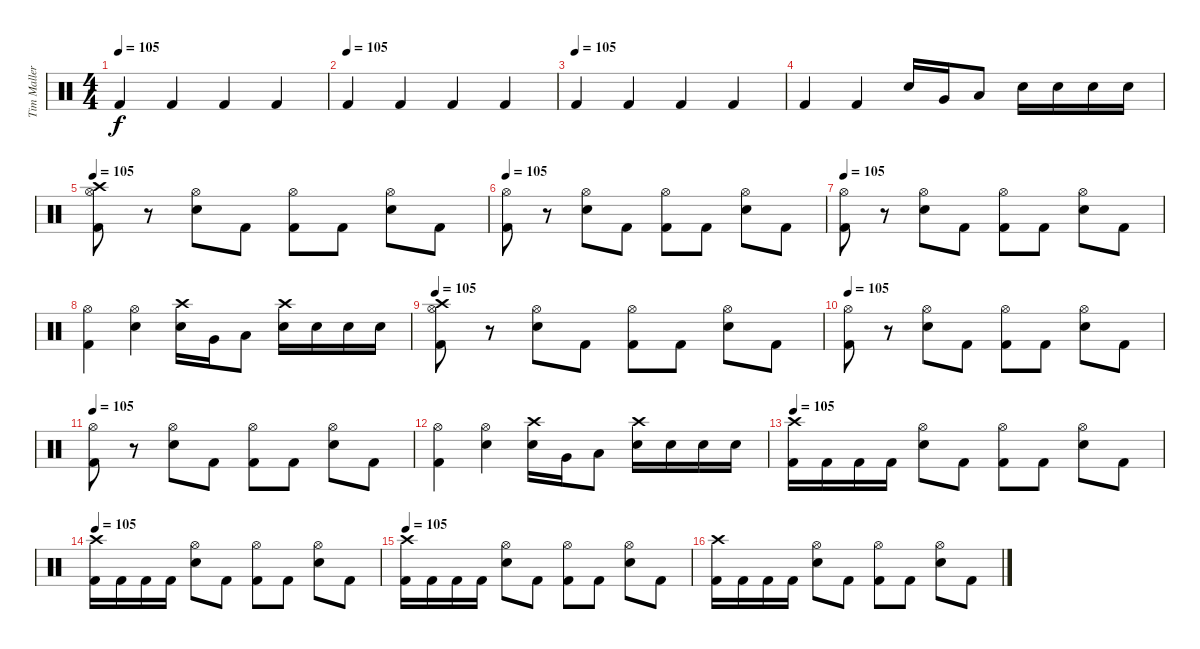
\track ("Tim Mallere" "Tim Maller") {instrument percussion}
\staff {score}
\articulation defaults
\ts (4 4)
\tempo 105
\clef neutral
\ks c "Kick (hit) 2".4{dy f} "Kick (hit) 2".4 "Kick (hit) 2".4 "Kick (hit) 2".4
|
\tempo (105)
"Kick (hit) 2".4 "Kick (hit) 2".4 "Kick (hit) 2".4 "Kick (hit) 2".4 |
\tempo (105)
"Kick (hit) 2".4 "Kick (hit) 2".4 "Kick (hit) 2".4 "Kick (hit) 2".4 |
"Kick (hit) 2".4 "Kick (hit) 2".4 "Electric Snare (hit)".16 "Very Low Tom (hit)".16 "Low Floor Tom (hit)".8 "Electric Snare (hit)".16 "Electric Snare (hit)".16 "Electric Snare (hit)".16 "Electric Snare (hit)".16 |
\tempo 105
("Crash high (hit)" "Hi-Hat (open)" "Kick (hit) 2").8 r.8 ("Hi-Hat (open)" "Electric Snare (hit)").8 "Kick (hit) 2".8 ("Hi-Hat (open)" "Kick (hit) 2").8 "Kick (hit) 2".8 ("Hi-Hat (open)" "Electric Snare (hit)").8 "Kick (hit) 2".8 |
\tempo 105
("Hi-Hat (open)" "Kick (hit) 2").8 r.8 ("Hi-Hat (open)" "Electric Snare (hit)").8 "Kick (hit) 2".8 ("Hi-Hat (open)" "Kick (hit) 2").8 "Kick (hit) 2".8 ("Hi-Hat (open)" "Electric Snare (hit)").8 "Kick (hit) 2".8 |
\tempo 105
("Hi-Hat (open)" "Kick (hit) 2").8 r.8 ("Hi-Hat (open)" "Electric Snare (hit)").8 "Kick (hit) 2".8 ("Hi-Hat (open)" "Kick (hit) 2").8 "Kick (hit) 2".8 ("Hi-Hat (open)" "Electric Snare (hit)").8 "Kick (hit) 2".8 |
("Hi-Hat (open)" "Kick (hit) 2").4 ("Hi-Hat (open)" "Electric Snare (hit)").4 ("Crash high (hit)" "Electric Snare (hit)").16 "Very Low Tom (hit)".16 "Low Floor Tom (hit)".8 ("Crash high (hit)" "Electric Snare (hit)").16 "Electric Snare (hit)".16 "Electric Snare (hit)".16 "Electric Snare (hit)".16 |
\tempo 105
("Crash high (hit)" "Hi-Hat (open)" "Kick (hit) 2").8 r.8 ("Hi-Hat (open)" "Electric Snare (hit)").8 "Kick (hit) 2".8 ("Hi-Hat (open)" "Kick (hit) 2").8 "Kick (hit) 2".8 ("Hi-Hat (open)" "Electric Snare (hit)").8 "Kick (hit) 2".8 |
\tempo 105
("Hi-Hat (open)" "Kick (hit) 2").8 r.8 ("Hi-Hat (open)" "Electric Snare (hit)").8 "Kick (hit) 2".8 ("Hi-Hat (open)" "Kick (hit) 2").8 "Kick (hit) 2".8 ("Hi-Hat (open)" "Electric Snare (hit)").8 "Kick (hit) 2".8 |
\tempo 105
("Hi-Hat (open)" "Kick (hit) 2").8 r.8 ("Hi-Hat (open)" "Electric Snare (hit)").8 "Kick (hit) 2".8 ("Hi-Hat (open)" "Kick (hit) 2").8 "Kick (hit) 2".8 ("Hi-Hat (open)" "Electric Snare (hit)").8 "Kick (hit) 2".8 |
("Hi-Hat (open)" "Kick (hit) 2").4 ("Hi-Hat (open)" "Electric Snare (hit)").4 ("Crash high (hit)" "Electric Snare (hit)").16 "Very Low Tom (hit)".16 "Low Floor Tom (hit)".8 ("Crash high (hit)" "Electric Snare (hit)").16 "Electric Snare (hit)".16 "Electric Snare (hit)".16 "Electric Snare (hit)".16 |
\tempo 105
("Crash high (hit)" "Kick (hit) 2").16 "Kick (hit) 2".16 "Kick (hit) 2".16 "Kick (hit) 2".16 ("Hi-Hat (open)" "Electric Snare (hit)").8 "Kick (hit) 2".8 ("Hi-Hat (open)" "Kick (hit) 2").8 "Kick (hit) 2".8 ("Hi-Hat (open)" "Electric Snare (hit)").8 "Kick (hit) 2".8 |
\tempo 105
("Crash high (hit)" "Kick (hit) 2").16 "Kick (hit) 2".16 "Kick (hit) 2".16 "Kick (hit) 2".16 ("Hi-Hat (open)" "Electric Snare (hit)").8 "Kick (hit) 2".8 ("Hi-Hat (open)" "Kick (hit) 2").8 "Kick (hit) 2".8 ("Hi-Hat (open)" "Electric Snare (hit)").8 "Kick (hit) 2".8 |
\tempo 105
("Crash high (hit)" "Kick (hit) 2").16 "Kick (hit) 2".16 "Kick (hit) 2".16 "Kick (hit) 2".16 ("Hi-Hat (open)" "Electric Snare (hit)").8 "Kick (hit) 2".8 ("Hi-Hat (open)" "Kick (hit) 2").8 "Kick (hit) 2".8 ("Hi-Hat (open)" "Electric Snare (hit)").8 "Kick (hit) 2".8 |
("Crash high (hit)" "Kick (hit) 2").16 "Kick (hit) 2".16 "Kick (hit) 2".16 "Kick (hit) 2".16 ("Hi-Hat (open)" "Electric Snare (hit)").8 "Kick (hit) 2".8 ("Hi-Hat (open)" "Kick (hit) 2").8 "Kick (hit) 2".8 ("Hi-Hat (open)" "Electric Snare (hit)").8 "Kick (hit) 2".8
